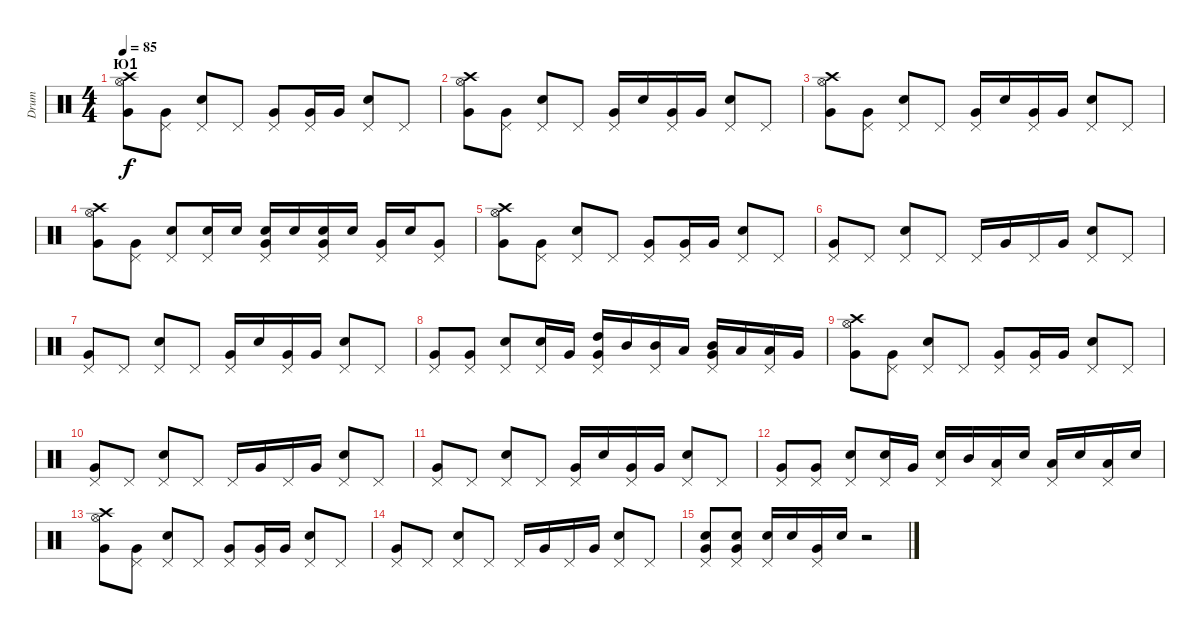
\track ("Drum" "Drum") {instrument percussion}
\staff {score}
\articulation defaults
\ts (4 4)
\section ("" "Ю")
\tempo 85
\clef neutral
\ks c
("Crash high (hit)" "Very Low Tom (hit)" "Hi-Hat (open)").8{dy f} ("Very Low Tom (hit)" "Pedal Hi-Hat (hit)").8 ("Snare (hit) 2" "Pedal Hi-Hat (hit)").8 "Pedal Hi-Hat (hit)".8 ("Very Low Tom (hit)" "Pedal Hi-Hat (hit)").8 ("Very Low Tom (hit)" "Pedal Hi-Hat (hit)").16 "Very Low Tom (hit)".16 ("Snare (hit) 2" "Pedal Hi-Hat (hit)").8 "Pedal Hi-Hat (hit)".8 |
("Crash high (hit)" "Very Low Tom (hit)" "Hi-Hat (open)").8 ("Very Low Tom (hit)" "Pedal Hi-Hat (hit)").8 ("Snare (hit) 2" "Pedal Hi-Hat (hit)").8 "Pedal Hi-Hat (hit)".8 ("Very Low Tom (hit)" "Pedal Hi-Hat (hit)").16 "Snare (hit) 2".16 ("Very Low Tom (hit)" "Pedal Hi-Hat (hit)").16 "Very Low Tom (hit)".16 ("Snare (hit) 2" "Pedal Hi-Hat (hit)").8 "Pedal Hi-Hat (hit)".8 |
("Crash high (hit)" "Very Low Tom (hit)" "Hi-Hat (open)").8 ("Very Low Tom (hit)" "Pedal Hi-Hat (hit)").8 ("Snare (hit) 2" "Pedal Hi-Hat (hit)").8 "Pedal Hi-Hat (hit)".8 ("Very Low Tom (hit)" "Pedal Hi-Hat (hit)").16 "Snare (hit) 2".16 ("Very Low Tom (hit)" "Pedal Hi-Hat (hit)").16 "Very Low Tom (hit)".16 ("Snare (hit) 2" "Pedal Hi-Hat (hit)").8 "Pedal Hi-Hat (hit)".8 |
("Crash high (hit)" "Very Low Tom (hit)" "Hi-Hat (open)").8 ("Very Low Tom (hit)" "Pedal Hi-Hat (hit)").8 ("Snare (hit) 2" "Pedal Hi-Hat (hit)").8 ("Snare (hit) 2" "Pedal Hi-Hat (hit)").16 "Snare (hit) 2".16 ("Snare (hit) 2" "Very Low Tom (hit)" "Pedal Hi-Hat (hit)").16 "Snare (hit) 2".16 ("Snare (hit) 2" "Very Low Tom (hit)" "Pedal Hi-Hat (hit)").16 "Snare (hit) 2".16 ("Very Low Tom (hit)" "Pedal Hi-Hat (hit)").16 "Snare (hit) 2".16 ("Very Low Tom (hit)" "Pedal Hi-Hat (hit)").8 |
("Crash high (hit)" "Very Low Tom (hit)" "Hi-Hat (open)").8 ("Very Low Tom (hit)" "Pedal Hi-Hat (hit)").8 ("Snare (hit) 2" "Pedal Hi-Hat (hit)").8 "Pedal Hi-Hat (hit)".8 ("Very Low Tom (hit)" "Pedal Hi-Hat (hit)").8 ("Very Low Tom (hit)" "Pedal Hi-Hat (hit)").16 "Very Low Tom (hit)".16 ("Snare (hit) 2" "Pedal Hi-Hat (hit)").8 "Pedal Hi-Hat (hit)".8 |
("Very Low Tom (hit)" "Pedal Hi-Hat (hit)").8 "Pedal Hi-Hat (hit)".8 ("Snare (hit) 2" "Pedal Hi-Hat (hit)").8 "Pedal Hi-Hat (hit)".8 "Pedal Hi-Hat (hit)".16 "Very Low Tom (hit)".16 "Pedal Hi-Hat (hit)".16 "Very Low Tom (hit)".16 ("Snare (hit) 2" "Pedal Hi-Hat (hit)").8 "Pedal Hi-Hat (hit)".8 |
("Very Low Tom (hit)" "Pedal Hi-Hat (hit)").8 "Pedal Hi-Hat (hit)".8 ("Snare (hit) 2" "Pedal Hi-Hat (hit)").8 "Pedal Hi-Hat (hit)".8 ("Very Low Tom (hit)" "Pedal Hi-Hat (hit)").16 "Snare (hit) 2".16 ("Very Low Tom (hit)" "Pedal Hi-Hat (hit)").16 "Very Low Tom (hit)".16 ("Snare (hit) 2" "Pedal Hi-Hat (hit)").8 "Pedal Hi-Hat (hit)".8 |
("Very Low Tom (hit)" "Pedal Hi-Hat (hit)").8 ("Very Low Tom (hit)" "Pedal Hi-Hat (hit)").8 ("Snare (hit) 2" "Pedal Hi-Hat (hit)").8 ("Snare (hit) 2" "Pedal Hi-Hat (hit)").16 "Very Low Tom (hit)".16 ("High Tom (hit)" "Very Low Tom (hit)" "Pedal Hi-Hat (hit)").16 "Mid Tom (hit)".16 ("Mid Tom (hit)" "Pedal Hi-Hat (hit)").16 "Low Tom (hit)".16 ("Mid Tom (hit)" "Very Low Tom (hit)" "Pedal Hi-Hat (hit)").16 "Low Tom (hit)".16 ("Low Tom (hit)" "Pedal Hi-Hat (hit)").16 "Very Low Tom (hit)".16 |
("Crash high (hit)" "Very Low Tom (hit)" "Hi-Hat (open)").8 ("Very Low Tom (hit)" "Pedal Hi-Hat (hit)").8 ("Snare (hit) 2" "Pedal Hi-Hat (hit)").8 "Pedal Hi-Hat (hit)".8 ("Very Low Tom (hit)" "Pedal Hi-Hat (hit)").8 ("Very Low Tom (hit)" "Pedal Hi-Hat (hit)").16 "Very Low Tom (hit)".16 ("Snare (hit) 2" "Pedal Hi-Hat (hit)").8 "Pedal Hi-Hat (hit)".8 |
("Very Low Tom (hit)" "Pedal Hi-Hat (hit)").8 "Pedal Hi-Hat (hit)".8 ("Snare (hit) 2" "Pedal Hi-Hat (hit)").8 "Pedal Hi-Hat (hit)".8 "Pedal Hi-Hat (hit)".16 "Very Low Tom (hit)".16 "Pedal Hi-Hat (hit)".16 "Very Low Tom (hit)".16 ("Snare (hit) 2" "Pedal Hi-Hat (hit)").8 "Pedal Hi-Hat (hit)".8 |
("Very Low Tom (hit)" "Pedal Hi-Hat (hit)").8 "Pedal Hi-Hat (hit)".8 ("Snare (hit) 2" "Pedal Hi-Hat (hit)").8 "Pedal Hi-Hat (hit)".8 ("Very Low Tom (hit)" "Pedal Hi-Hat (hit)").16 "Snare (hit) 2".16 ("Very Low Tom (hit)" "Pedal Hi-Hat (hit)").16 "Very Low Tom (hit)".16 ("Snare (hit) 2" "Pedal Hi-Hat (hit)").8 "Pedal Hi-Hat (hit)".8 |
("Very Low Tom (hit)" "Pedal Hi-Hat (hit)").8 ("Very Low Tom (hit)" "Pedal Hi-Hat (hit)").8 ("Snare (hit) 2" "Pedal Hi-Hat (hit)").8 ("Snare (hit) 2" "Pedal Hi-Hat (hit)").16 "Very Low Tom (hit)".16 ("Snare (hit) 2" "Pedal Hi-Hat (hit)").16 "Mid Tom (hit)".16 ("Low Tom (hit)" "Pedal Hi-Hat (hit)").16 "Snare (hit) 2".16 ("Low Tom (hit)" "Pedal Hi-Hat (hit)").16 "Snare (hit) 2".16 ("Low Tom (hit)" "Pedal Hi-Hat (hit)").16 "Snare (hit) 2".16 |
("Crash high (hit)" "Very Low Tom (hit)" "Hi-Hat (open)").8 ("Very Low Tom (hit)" "Pedal Hi-Hat (hit)").8 ("Snare (hit) 2" "Pedal Hi-Hat (hit)").8 "Pedal Hi-Hat (hit)".8 ("Very Low Tom (hit)" "Pedal Hi-Hat (hit)").8 ("Very Low Tom (hit)" "Pedal Hi-Hat (hit)").16 "Very Low Tom (hit)".16 ("Snare (hit) 2" "Pedal Hi-Hat (hit)").8 "Pedal Hi-Hat (hit)".8 |
("Very Low Tom (hit)" "Pedal Hi-Hat (hit)").8 "Pedal Hi-Hat (hit)".8 ("Snare (hit) 2" "Pedal Hi-Hat (hit)").8 "Pedal Hi-Hat (hit)".8 "Pedal Hi-Hat (hit)".16 "Very Low Tom (hit)".16 "Pedal Hi-Hat (hit)".16 "Very Low Tom (hit)".16 ("Snare (hit) 2" "Pedal Hi-Hat (hit)").8 "Pedal Hi-Hat (hit)".8 |
("Snare (hit) 2" "Very Low Tom (hit)" "Pedal Hi-Hat (hit)").8 ("Snare (hit) 2" "Very Low Tom (hit)" "Pedal Hi-Hat (hit)").8 ("Snare (hit) 2" "Pedal Hi-Hat (hit)").16 "Snare (hit) 2".16 ("Very Low Tom (hit)" "Pedal Hi-Hat (hit)").16 "Snare (hit) 2".16 r.2
